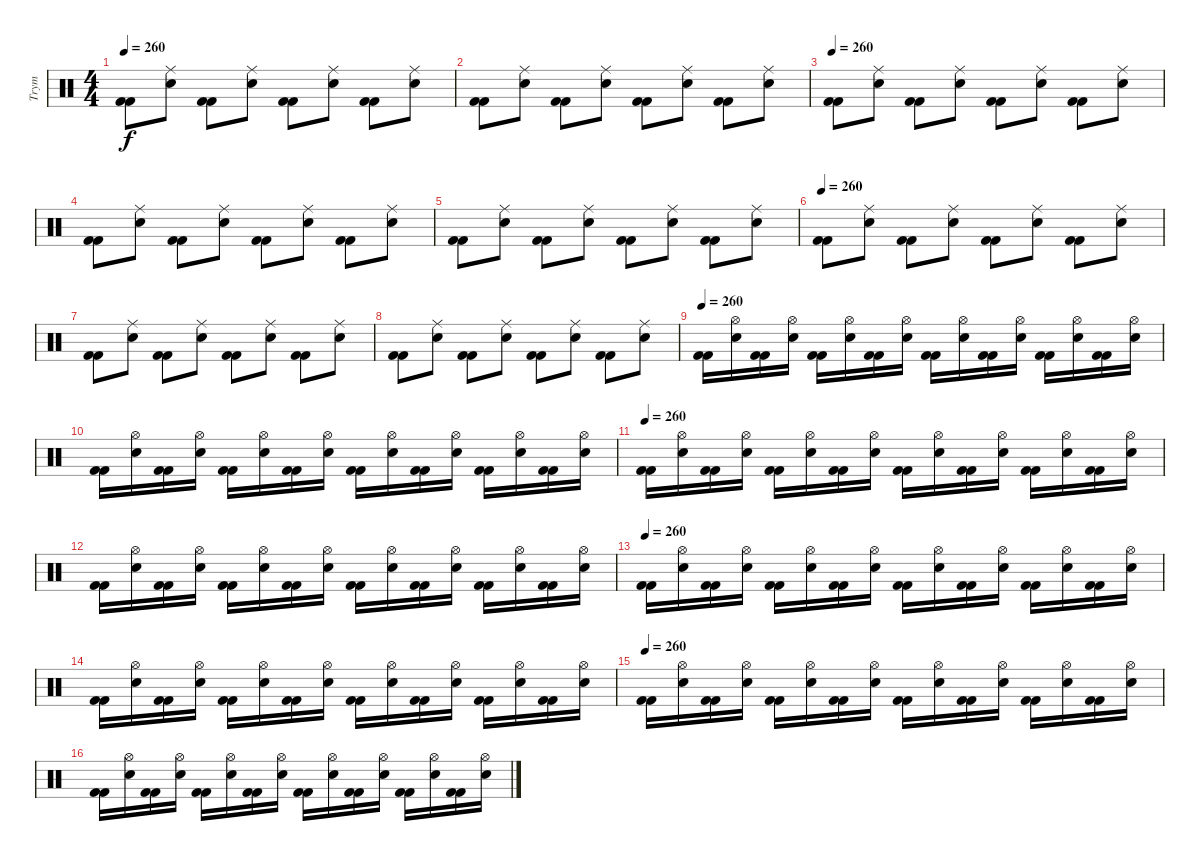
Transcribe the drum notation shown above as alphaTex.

\track ("Trym" "Trym") {instrument percussion}
\staff {score}
\articulation defaults
\ts (4 4)
\tempo 260
\clef neutral
\ks c
("Kick (hit) 2" "Kick (hit) 2").8{dy f} ("Ride (middle)" "Snare (hit) 2").8 ("Kick (hit) 2" "Kick (hit) 2").8 ("Ride (middle)" "Snare (hit) 2").8 ("Kick (hit) 2" "Kick (hit) 2").8 ("Ride (middle)" "Snare (hit) 2").8 ("Kick (hit) 2" "Kick (hit) 2").8 ("Ride (middle)" "Snare (hit) 2").8 |
("Kick (hit) 2" "Kick (hit) 2").8 ("Ride (middle)" "Snare (hit) 2").8 ("Kick (hit) 2" "Kick (hit) 2").8 ("Ride (middle)" "Snare (hit) 2").8 ("Kick (hit) 2" "Kick (hit) 2").8 ("Ride (middle)" "Snare (hit) 2").8 ("Kick (hit) 2" "Kick (hit) 2").8 ("Ride (middle)" "Snare (hit) 2").8 |
\tempo 260
("Kick (hit) 2" "Kick (hit) 2").8 ("Ride (middle)" "Snare (hit) 2").8 ("Kick (hit) 2" "Kick (hit) 2").8 ("Ride (middle)" "Snare (hit) 2").8 ("Kick (hit) 2" "Kick (hit) 2").8 ("Ride (middle)" "Snare (hit) 2").8 ("Kick (hit) 2" "Kick (hit) 2").8 ("Ride (middle)" "Snare (hit) 2").8 |
("Kick (hit) 2" "Kick (hit) 2").8 ("Ride (middle)" "Snare (hit) 2").8 ("Kick (hit) 2" "Kick (hit) 2").8 ("Ride (middle)" "Snare (hit) 2").8 ("Kick (hit) 2" "Kick (hit) 2").8 ("Ride (middle)" "Snare (hit) 2").8 ("Kick (hit) 2" "Kick (hit) 2").8 ("Ride (middle)" "Snare (hit) 2").8 |
("Kick (hit) 2" "Kick (hit) 2").8 ("Ride (middle)" "Snare (hit) 2").8 ("Kick (hit) 2" "Kick (hit) 2").8 ("Ride (middle)" "Snare (hit) 2").8 ("Kick (hit) 2" "Kick (hit) 2").8 ("Ride (middle)" "Snare (hit) 2").8 ("Kick (hit) 2" "Kick (hit) 2").8 ("Ride (middle)" "Snare (hit) 2").8 |
\tempo 260
("Kick (hit) 2" "Kick (hit) 2").8 ("Ride (middle)" "Snare (hit) 2").8 ("Kick (hit) 2" "Kick (hit) 2").8 ("Ride (middle)" "Snare (hit) 2").8 ("Kick (hit) 2" "Kick (hit) 2").8 ("Ride (middle)" "Snare (hit) 2").8 ("Kick (hit) 2" "Kick (hit) 2").8 ("Ride (middle)" "Snare (hit) 2").8 |
("Kick (hit) 2" "Kick (hit) 2").8 ("Ride (middle)" "Snare (hit) 2").8 ("Kick (hit) 2" "Kick (hit) 2").8 ("Ride (middle)" "Snare (hit) 2").8 ("Kick (hit) 2" "Kick (hit) 2").8 ("Ride (middle)" "Snare (hit) 2").8 ("Kick (hit) 2" "Kick (hit) 2").8 ("Ride (middle)" "Snare (hit) 2").8 |
("Kick (hit) 2" "Kick (hit) 2").8 ("Ride (middle)" "Snare (hit) 2").8 ("Kick (hit) 2" "Kick (hit) 2").8 ("Ride (middle)" "Snare (hit) 2").8 ("Kick (hit) 2" "Kick (hit) 2").8 ("Ride (middle)" "Snare (hit) 2").8 ("Kick (hit) 2" "Kick (hit) 2").8 ("Ride (middle)" "Snare (hit) 2").8 |
\tempo 260
("Kick (hit) 2" "Kick (hit) 2").16 ("Hi-Hat (open)" "Snare (hit) 2").16 ("Kick (hit) 2" "Kick (hit) 2").16 ("Hi-Hat (open)" "Snare (hit) 2").16 ("Kick (hit) 2" "Kick (hit) 2").16 ("Hi-Hat (open)" "Snare (hit) 2").16 ("Kick (hit) 2" "Kick (hit) 2").16 ("Hi-Hat (open)" "Snare (hit) 2").16 ("Kick (hit) 2" "Kick (hit) 2").16 ("Hi-Hat (open)" "Snare (hit) 2").16 ("Kick (hit) 2" "Kick (hit) 2").16 ("Hi-Hat (open)" "Snare (hit) 2").16 ("Kick (hit) 2" "Kick (hit) 2").16 ("Hi-Hat (open)" "Snare (hit) 2").16 ("Kick (hit) 2" "Kick (hit) 2").16 ("Hi-Hat (open)" "Snare (hit) 2").16 |
("Kick (hit) 2" "Kick (hit) 2").16 ("Hi-Hat (open)" "Snare (hit) 2").16 ("Kick (hit) 2" "Kick (hit) 2").16 ("Hi-Hat (open)" "Snare (hit) 2").16 ("Kick (hit) 2" "Kick (hit) 2").16 ("Hi-Hat (open)" "Snare (hit) 2").16 ("Kick (hit) 2" "Kick (hit) 2").16 ("Hi-Hat (open)" "Snare (hit) 2").16 ("Kick (hit) 2" "Kick (hit) 2").16 ("Hi-Hat (open)" "Snare (hit) 2").16 ("Kick (hit) 2" "Kick (hit) 2").16 ("Hi-Hat (open)" "Snare (hit) 2").16 ("Kick (hit) 2" "Kick (hit) 2").16 ("Hi-Hat (open)" "Snare (hit) 2").16 ("Kick (hit) 2" "Kick (hit) 2").16 ("Hi-Hat (open)" "Snare (hit) 2").16 |
\tempo 260
("Kick (hit) 2" "Kick (hit) 2").16 ("Hi-Hat (open)" "Snare (hit) 2").16 ("Kick (hit) 2" "Kick (hit) 2").16 ("Hi-Hat (open)" "Snare (hit) 2").16 ("Kick (hit) 2" "Kick (hit) 2").16 ("Hi-Hat (open)" "Snare (hit) 2").16 ("Kick (hit) 2" "Kick (hit) 2").16 ("Hi-Hat (open)" "Snare (hit) 2").16 ("Kick (hit) 2" "Kick (hit) 2").16 ("Hi-Hat (open)" "Snare (hit) 2").16 ("Kick (hit) 2" "Kick (hit) 2").16 ("Hi-Hat (open)" "Snare (hit) 2").16 ("Kick (hit) 2" "Kick (hit) 2").16 ("Hi-Hat (open)" "Snare (hit) 2").16 ("Kick (hit) 2" "Kick (hit) 2").16 ("Hi-Hat (open)" "Snare (hit) 2").16 |
("Kick (hit) 2" "Kick (hit) 2").16 ("Hi-Hat (open)" "Snare (hit) 2").16 ("Kick (hit) 2" "Kick (hit) 2").16 ("Hi-Hat (open)" "Snare (hit) 2").16 ("Kick (hit) 2" "Kick (hit) 2").16 ("Hi-Hat (open)" "Snare (hit) 2").16 ("Kick (hit) 2" "Kick (hit) 2").16 ("Hi-Hat (open)" "Snare (hit) 2").16 ("Kick (hit) 2" "Kick (hit) 2").16 ("Hi-Hat (open)" "Snare (hit) 2").16 ("Kick (hit) 2" "Kick (hit) 2").16 ("Hi-Hat (open)" "Snare (hit) 2").16 ("Kick (hit) 2" "Kick (hit) 2").16 ("Hi-Hat (open)" "Snare (hit) 2").16 ("Kick (hit) 2" "Kick (hit) 2").16 ("Hi-Hat (open)" "Snare (hit) 2").16 |
\tempo 260
("Kick (hit) 2" "Kick (hit) 2").16 ("Hi-Hat (open)" "Snare (hit) 2").16 ("Kick (hit) 2" "Kick (hit) 2").16 ("Hi-Hat (open)" "Snare (hit) 2").16 ("Kick (hit) 2" "Kick (hit) 2").16 ("Hi-Hat (open)" "Snare (hit) 2").16 ("Kick (hit) 2" "Kick (hit) 2").16 ("Hi-Hat (open)" "Snare (hit) 2").16 ("Kick (hit) 2" "Kick (hit) 2").16 ("Hi-Hat (open)" "Snare (hit) 2").16 ("Kick (hit) 2" "Kick (hit) 2").16 ("Hi-Hat (open)" "Snare (hit) 2").16 ("Kick (hit) 2" "Kick (hit) 2").16 ("Hi-Hat (open)" "Snare (hit) 2").16 ("Kick (hit) 2" "Kick (hit) 2").16 ("Hi-Hat (open)" "Snare (hit) 2").16 |
("Kick (hit) 2" "Kick (hit) 2").16 ("Hi-Hat (open)" "Snare (hit) 2").16 ("Kick (hit) 2" "Kick (hit) 2").16 ("Hi-Hat (open)" "Snare (hit) 2").16 ("Kick (hit) 2" "Kick (hit) 2").16 ("Hi-Hat (open)" "Snare (hit) 2").16 ("Kick (hit) 2" "Kick (hit) 2").16 ("Hi-Hat (open)" "Snare (hit) 2").16 ("Kick (hit) 2" "Kick (hit) 2").16 ("Hi-Hat (open)" "Snare (hit) 2").16 ("Kick (hit) 2" "Kick (hit) 2").16 ("Hi-Hat (open)" "Snare (hit) 2").16 ("Kick (hit) 2" "Kick (hit) 2").16 ("Hi-Hat (open)" "Snare (hit) 2").16 ("Kick (hit) 2" "Kick (hit) 2").16 ("Hi-Hat (open)" "Snare (hit) 2").16 |
\tempo 260
("Kick (hit) 2" "Kick (hit) 2").16 ("Hi-Hat (open)" "Snare (hit) 2").16 ("Kick (hit) 2" "Kick (hit) 2").16 ("Hi-Hat (open)" "Snare (hit) 2").16 ("Kick (hit) 2" "Kick (hit) 2").16 ("Hi-Hat (open)" "Snare (hit) 2").16 ("Kick (hit) 2" "Kick (hit) 2").16 ("Hi-Hat (open)" "Snare (hit) 2").16 ("Kick (hit) 2" "Kick (hit) 2").16 ("Hi-Hat (open)" "Snare (hit) 2").16 ("Kick (hit) 2" "Kick (hit) 2").16 ("Hi-Hat (open)" "Snare (hit) 2").16 ("Kick (hit) 2" "Kick (hit) 2").16 ("Hi-Hat (open)" "Snare (hit) 2").16 ("Kick (hit) 2" "Kick (hit) 2").16 ("Hi-Hat (open)" "Snare (hit) 2").16 |
("Kick (hit) 2" "Kick (hit) 2").16 ("Hi-Hat (open)" "Snare (hit) 2").16 ("Kick (hit) 2" "Kick (hit) 2").16 ("Hi-Hat (open)" "Snare (hit) 2").16 ("Kick (hit) 2" "Kick (hit) 2").16 ("Hi-Hat (open)" "Snare (hit) 2").16 ("Kick (hit) 2" "Kick (hit) 2").16 ("Hi-Hat (open)" "Snare (hit) 2").16 ("Kick (hit) 2" "Kick (hit) 2").16 ("Hi-Hat (open)" "Snare (hit) 2").16 ("Kick (hit) 2" "Kick (hit) 2").16 ("Hi-Hat (open)" "Snare (hit) 2").16 ("Kick (hit) 2" "Kick (hit) 2").16 ("Hi-Hat (open)" "Snare (hit) 2").16 ("Kick (hit) 2" "Kick (hit) 2").16 ("Hi-Hat (open)" "Snare (hit) 2").16
